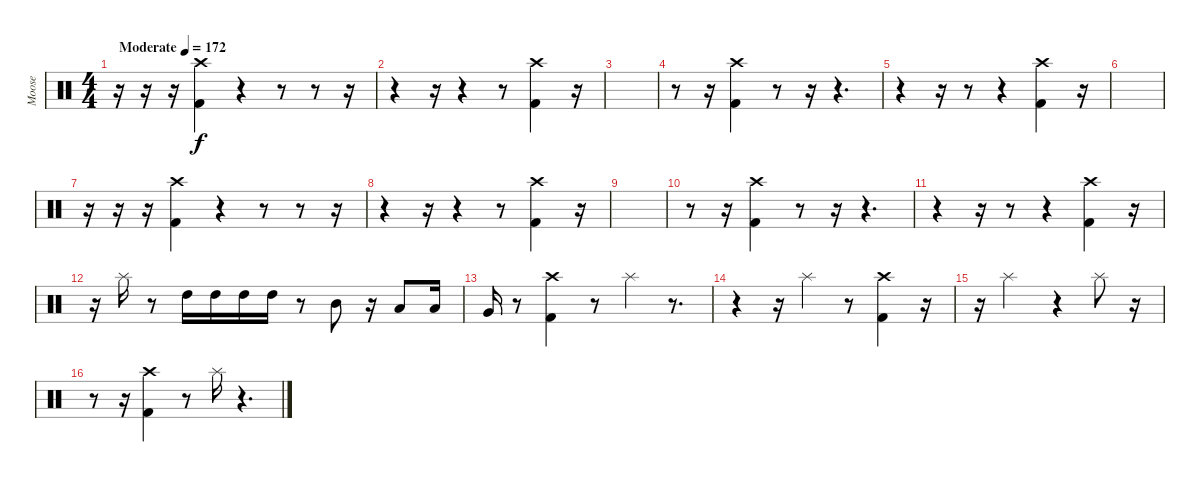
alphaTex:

\track ("Moose" "Moose") {instrument percussion}
\staff {score}
\articulation defaults
\ts (4 4)
\tempo (172 "Moderate")
\clef neutral
\ks c
r.16{dy f} r.16 r.16 ("Crash high (hit)" "Kick (hit) 2").4 r.4 r.8 r.8 r.16 |
r.4 r.16 r.4 r.8 ("Crash high (hit)" "Kick (hit) 2").4 r.16 |
|
r.8 r.16 ("Crash high (hit)" "Kick (hit) 2").4 r.8 r.16 r.4{d} |
r.4 r.16 r.8 r.4 ("Crash high (hit)" "Kick (hit) 2").4 r.16 |
|
r.16 r.16 r.16 ("Crash high (hit)" "Kick (hit) 2").4 r.4 r.8 r.8 r.16 |
r.4 r.16 r.4 r.8 ("Crash high (hit)" "Kick (hit) 2").4 r.16 |
|
r.8 r.16 ("Crash high (hit)" "Kick (hit) 2").4 r.8 r.16 r.4{d} |
r.4 r.16 r.8 r.4 ("Crash high (hit)" "Kick (hit) 2").4 r.16 |
r.16 "Splash (hit)".16 r.8 "High Tom (hit)".16 "High Tom (hit)".16 "High Tom (hit)".16 "High Tom (hit)".16 r.8 "Mid Tom (hit)".8 r.16 "Low Tom (hit)".8 "Low Tom (hit)".16 |
"Very Low Tom (hit)".16 r.8 ("Crash high (hit)" "Kick (hit) 2").4 r.8 "Splash (hit)".4 r.8{d} |
r.4 r.16 "Splash (hit)".4 r.8 ("Crash high (hit)" "Kick (hit) 2").4 r.16 |
r.16 "Splash (hit)".2 r.4 "Splash (hit)".8 r.16 |
r.8 r.16 ("Crash high (hit)" "Kick (hit) 2").4 r.8 "Splash (hit)".16 r.4{d}
